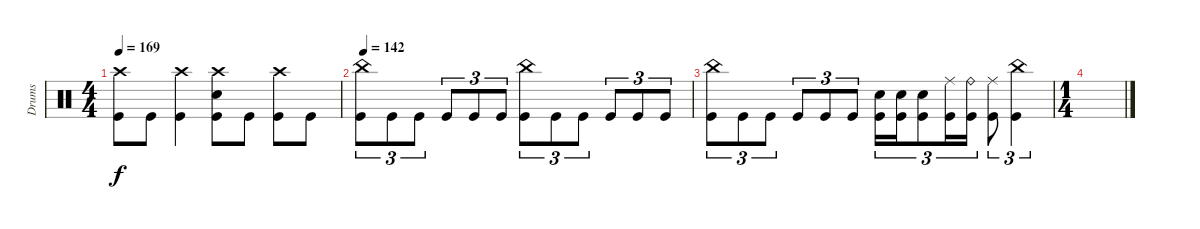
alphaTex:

\track ("Drums" "Drums") {instrument percussion}
\staff
\articulation defaults
\ts (4 4)
\tempo 169
\clef neutral
\ks c
("Crash high (hit)" "Kick (hit)").8{dy f} "Kick (hit)".8 ("Crash high (hit)" "Kick (hit)").4 ("Crash high (hit)" "Electric Snare (hit)" "Kick (hit)").8 "Kick (hit)".8 ("Crash high (hit)" "Kick (hit)").8 "Kick (hit)".8 |
\tempo 142
("China (hit)" "Kick (hit)").8{tu (3 2)} "Kick (hit)".8{tu (3 2)} "Kick (hit)".8{tu (3 2)} "Kick (hit)".8{tu (3 2)} "Kick (hit)".8{tu (3 2)} "Kick (hit)".8{tu (3 2)} ("China (hit)" "Kick (hit)").8{tu (3 2)} "Kick (hit)".8{tu (3 2)} "Kick (hit)".8{tu (3 2)} "Kick (hit)".8{tu (3 2)} "Kick (hit)".8{tu (3 2)} "Kick (hit)".8{tu (3 2)} |
("China (hit)" "Kick (hit)").8{tu (3 2)} "Kick (hit)".8{tu (3 2)} "Kick (hit)".8{tu (3 2)} "Kick (hit)".8{tu (3 2)} "Kick (hit)".8{tu (3 2)} "Kick (hit)".8{tu (3 2)} ("Electric Snare (hit)" "Kick (hit)").16{tu (3 2)} ("Electric Snare (hit)" "Kick (hit)").16{tu (3 2)} ("Electric Snare (hit)" "Kick (hit)").8{tu (3 2)} ("Ride (middle)" "Kick (hit)").16{tu (3 2)} ("Ride (bell)" "Kick (hit)").16{tu (3 2)} ("Ride (middle)" "Kick (hit)").8{tu (3 2)} ("China (hit)" "Kick (hit)").4{tu (3 2)} |
\ts (1 4)
